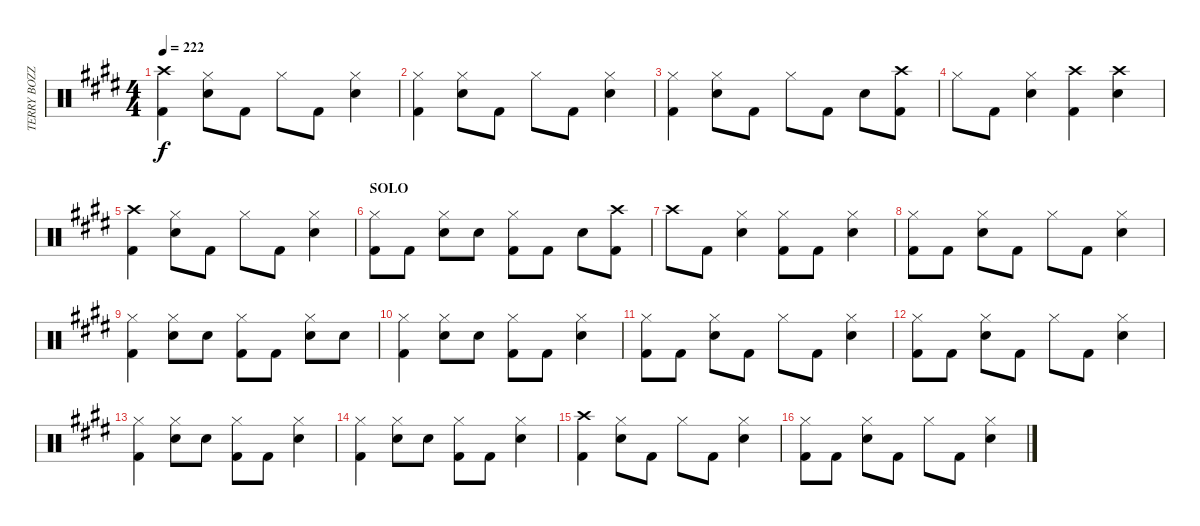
\track ("TERRY BOZZIO" "TERRY BOZZ") {instrument percussion}
\staff {score}
\articulation defaults
\ts (4 4)
\tempo 222
\clef neutral
\ks c#minor
("Crash high (hit)" "Kick (hit) 2").4{dy f} ("Hi-Hat (closed)" "Snare (hit) 2").8 "Kick (hit) 2".8 "Hi-Hat (closed)".8 "Kick (hit) 2".8 ("Hi-Hat (closed)" "Snare (hit) 2").4 |
("Hi-Hat (closed)" "Kick (hit) 2").4 ("Hi-Hat (closed)" "Snare (hit) 2").8 "Kick (hit) 2".8 "Hi-Hat (closed)".8 "Kick (hit) 2".8 ("Hi-Hat (closed)" "Snare (hit) 2").4 |
("Hi-Hat (closed)" "Kick (hit) 2").4 ("Hi-Hat (closed)" "Snare (hit) 2").8 "Kick (hit) 2".8 "Hi-Hat (closed)".8 "Kick (hit) 2".8 "Snare (hit) 2".8 ("Crash high (hit)" "Kick (hit) 2").8 |
"Hi-Hat (closed)".8 "Kick (hit) 2".8 ("Hi-Hat (closed)" "Snare (hit) 2").4 ("Crash high (hit)" "Kick (hit) 2").4 ("Crash high (hit)" "Snare (hit) 2").4 |
("Crash high (hit)" "Kick (hit) 2").4 ("Hi-Hat (closed)" "Snare (hit) 2").8 "Kick (hit) 2".8 "Hi-Hat (closed)".8 "Kick (hit) 2".8 ("Hi-Hat (closed)" "Snare (hit) 2").4 |
\section ("" "SOLO")
("Hi-Hat (closed)" "Kick (hit) 2").8 "Kick (hit) 2".8 ("Hi-Hat (closed)" "Snare (hit) 2").8 "Snare (hit) 2".8 ("Hi-Hat (closed)" "Kick (hit) 2").8 "Kick (hit) 2".8 "Snare (hit) 2".8 ("Crash high (hit)" "Kick (hit) 2").8 |
"Crash high (hit)".8 "Kick (hit) 2".8 ("Hi-Hat (closed)" "Snare (hit) 2").4 ("Hi-Hat (closed)" "Kick (hit) 2").8 "Kick (hit) 2".8 ("Hi-Hat (closed)" "Snare (hit) 2").4 |
("Hi-Hat (closed)" "Kick (hit) 2").8 "Kick (hit) 2".8 ("Hi-Hat (closed)" "Snare (hit) 2").8 "Kick (hit) 2".8 "Hi-Hat (closed)".8 "Kick (hit) 2".8 ("Hi-Hat (closed)" "Snare (hit) 2").4 |
("Hi-Hat (closed)" "Kick (hit) 2").4 ("Hi-Hat (closed)" "Snare (hit) 2").8 "Snare (hit) 2".8 ("Hi-Hat (closed)" "Kick (hit) 2").8 "Kick (hit) 2".8 ("Hi-Hat (closed)" "Snare (hit) 2").8 "Snare (hit) 2".8 |
("Hi-Hat (closed)" "Kick (hit) 2").4 ("Hi-Hat (closed)" "Snare (hit) 2").8 "Snare (hit) 2".8 ("Hi-Hat (closed)" "Kick (hit) 2").8 "Kick (hit) 2".8 ("Hi-Hat (closed)" "Snare (hit) 2").4 |
("Hi-Hat (closed)" "Kick (hit) 2").8 "Kick (hit) 2".8 ("Hi-Hat (closed)" "Snare (hit) 2").8 "Kick (hit) 2".8 "Hi-Hat (closed)".8 "Kick (hit) 2".8 ("Hi-Hat (closed)" "Snare (hit) 2").4 |
("Hi-Hat (closed)" "Kick (hit) 2").8 "Kick (hit) 2".8 ("Hi-Hat (closed)" "Snare (hit) 2").8 "Kick (hit) 2".8 "Hi-Hat (closed)".8 "Kick (hit) 2".8 ("Hi-Hat (closed)" "Snare (hit) 2").4 |
("Hi-Hat (closed)" "Kick (hit) 2").4 ("Hi-Hat (closed)" "Snare (hit) 2").8 "Snare (hit) 2".8 ("Hi-Hat (closed)" "Kick (hit) 2").8 "Kick (hit) 2".8 ("Hi-Hat (closed)" "Snare (hit) 2").4 |
("Hi-Hat (closed)" "Kick (hit) 2").4 ("Hi-Hat (closed)" "Snare (hit) 2").8 "Snare (hit) 2".8 ("Hi-Hat (closed)" "Kick (hit) 2").8 "Kick (hit) 2".8 ("Hi-Hat (closed)" "Snare (hit) 2").4 |
("Crash high (hit)" "Kick (hit) 2").4 ("Hi-Hat (closed)" "Snare (hit) 2").8 "Kick (hit) 2".8 "Hi-Hat (closed)".8 "Kick (hit) 2".8 ("Hi-Hat (closed)" "Snare (hit) 2").4 |
("Hi-Hat (closed)" "Kick (hit) 2").8 "Kick (hit) 2".8 ("Hi-Hat (closed)" "Snare (hit) 2").8 "Kick (hit) 2".8 "Hi-Hat (closed)".8 "Kick (hit) 2".8 ("Hi-Hat (closed)" "Snare (hit) 2").4
